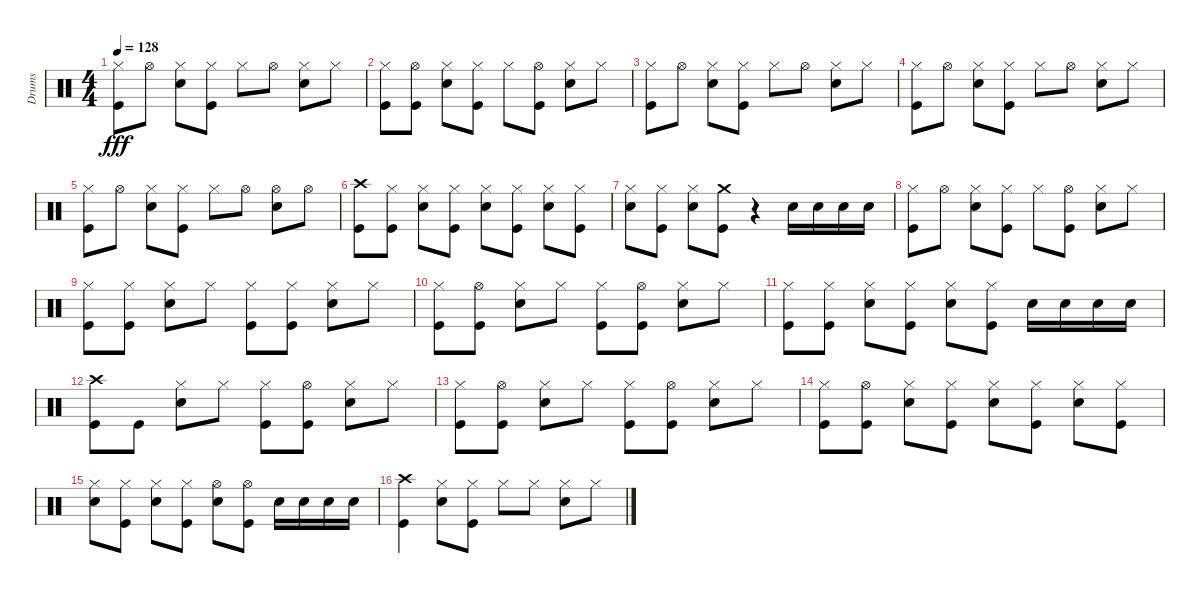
\track ("Drums" "Drums") {instrument percussion}
\staff {score}
\articulation defaults
\ts (4 4)
\tempo 128
\clef neutral
\ks c
("Hi-Hat (closed)" "Kick (hit)").8{dy fff} "Hi-Hat (open)".8 ("Hi-Hat (closed)" "Snare (hit) 2").8 ("Hi-Hat (closed)" "Kick (hit)").8 "Hi-Hat (closed)".8 "Hi-Hat (open)".8 ("Hi-Hat (closed)" "Snare (hit) 2").8 "Hi-Hat (closed)".8 |
("Hi-Hat (closed)" "Kick (hit)").8 ("Hi-Hat (open)" "Kick (hit)").8 ("Hi-Hat (closed)" "Snare (hit) 2").8 ("Hi-Hat (closed)" "Kick (hit)").8 "Hi-Hat (closed)".8 ("Hi-Hat (open)" "Kick (hit)").8 ("Hi-Hat (closed)" "Snare (hit) 2").8 "Hi-Hat (closed)".8 |
("Hi-Hat (closed)" "Kick (hit)").8 "Hi-Hat (open)".8 ("Hi-Hat (closed)" "Snare (hit) 2").8 ("Hi-Hat (closed)" "Kick (hit)").8 "Hi-Hat (closed)".8 "Hi-Hat (open)".8 ("Hi-Hat (closed)" "Snare (hit) 2").8 "Hi-Hat (closed)".8 |
("Hi-Hat (closed)" "Kick (hit)").8 "Hi-Hat (open)".8 ("Hi-Hat (closed)" "Snare (hit) 2").8 ("Hi-Hat (closed)" "Kick (hit)").8 "Hi-Hat (closed)".8 "Hi-Hat (open)".8 ("Hi-Hat (closed)" "Snare (hit) 2").8 "Hi-Hat (closed)".8 |
("Hi-Hat (closed)" "Kick (hit)").8 "Hi-Hat (open)".8 ("Hi-Hat (closed)" "Snare (hit) 2").8 ("Hi-Hat (closed)" "Kick (hit)").8 "Hi-Hat (closed)".8 "Hi-Hat (open)".8 ("Hi-Hat (open)" "Snare (hit) 2").8 "Hi-Hat (open)".8 |
("Crash high (hit)" "Kick (hit)").8 ("Hi-Hat (closed)" "Kick (hit)").8 ("Hi-Hat (closed)" "Snare (hit) 2").8 ("Hi-Hat (closed)" "Kick (hit)").8 ("Hi-Hat (closed)" "Snare (hit) 2").8 ("Hi-Hat (closed)" "Kick (hit)").8 ("Hi-Hat (closed)" "Snare (hit) 2").8 ("Hi-Hat (closed)" "Kick (hit)").8 |
("Hi-Hat (closed)" "Snare (hit) 2").8 ("Hi-Hat (closed)" "Kick (hit)").8 ("Hi-Hat (closed)" "Snare (hit) 2").8 ("Crash medium (hit)" "Kick (hit)").8 r.4 "Snare (hit) 2".16 "Snare (hit) 2".16 "Snare (hit) 2".16 "Snare (hit) 2".16 |
("Hi-Hat (closed)" "Kick (hit)").8 "Hi-Hat (open)".8 ("Hi-Hat (closed)" "Snare (hit) 2").8 ("Hi-Hat (closed)" "Kick (hit)").8 "Hi-Hat (closed)".8 ("Hi-Hat (open)" "Kick (hit)").8 ("Hi-Hat (closed)" "Snare (hit) 2").8 "Hi-Hat (closed)".8 |
("Hi-Hat (closed)" "Kick (hit)").8 ("Hi-Hat (closed)" "Kick (hit)").8 ("Hi-Hat (closed)" "Snare (hit) 2").8 "Hi-Hat (closed)".8 ("Hi-Hat (closed)" "Kick (hit)").8 ("Hi-Hat (closed)" "Kick (hit)").8 ("Hi-Hat (closed)" "Snare (hit) 2").8 "Hi-Hat (closed)".8 |
("Hi-Hat (closed)" "Kick (hit)").8 ("Hi-Hat (open)" "Kick (hit)").8 ("Hi-Hat (closed)" "Snare (hit) 2").8 "Hi-Hat (closed)".8 ("Hi-Hat (closed)" "Kick (hit)").8 ("Hi-Hat (open)" "Kick (hit)").8 ("Hi-Hat (closed)" "Snare (hit) 2").8 "Hi-Hat (closed)".8 |
("Hi-Hat (closed)" "Kick (hit)").8 ("Hi-Hat (closed)" "Kick (hit)").8 ("Hi-Hat (closed)" "Snare (hit) 2").8 ("Hi-Hat (closed)" "Kick (hit)").8 ("Hi-Hat (closed)" "Snare (hit) 2").8 ("Hi-Hat (closed)" "Kick (hit)").8 "Snare (hit) 2".16 "Snare (hit) 2".16 "Snare (hit) 2".16 "Snare (hit) 2".16 |
("Crash high (hit)" "Kick (hit)").8 "Kick (hit)".8 ("Hi-Hat (closed)" "Snare (hit) 2").8 "Hi-Hat (closed)".8 ("Hi-Hat (closed)" "Kick (hit)").8 ("Hi-Hat (open)" "Kick (hit)").8 ("Hi-Hat (closed)" "Snare (hit) 2").8 "Hi-Hat (closed)".8 |
("Hi-Hat (closed)" "Kick (hit)").8 ("Hi-Hat (open)" "Kick (hit)").8 ("Hi-Hat (closed)" "Snare (hit) 2").8 "Hi-Hat (closed)".8 ("Hi-Hat (closed)" "Kick (hit)").8 ("Hi-Hat (open)" "Kick (hit)").8 ("Hi-Hat (closed)" "Snare (hit) 2").8 "Hi-Hat (closed)".8 |
("Hi-Hat (closed)" "Kick (hit)").8 ("Hi-Hat (open)" "Kick (hit)").8 ("Hi-Hat (closed)" "Snare (hit) 2").8 ("Hi-Hat (closed)" "Kick (hit)").8 ("Hi-Hat (closed)" "Snare (hit) 2").8 ("Hi-Hat (closed)" "Kick (hit)").8 ("Hi-Hat (closed)" "Snare (hit) 2").8 ("Hi-Hat (closed)" "Kick (hit)").8 |
("Hi-Hat (closed)" "Snare (hit) 2").8 ("Hi-Hat (closed)" "Kick (hit)").8 ("Hi-Hat (closed)" "Snare (hit) 2").8 ("Hi-Hat (closed)" "Kick (hit)").8 ("Hi-Hat (open)" "Snare (hit) 2").8 ("Hi-Hat (open)" "Kick (hit)").8 "Snare (hit) 2".16 "Snare (hit) 2".16 "Snare (hit) 2".16 "Snare (hit) 2".16 |
("Crash high (hit)" "Kick (hit)").4 ("Hi-Hat (closed)" "Snare (hit) 2").8 ("Hi-Hat (closed)" "Kick (hit)").8 "Hi-Hat (closed)".8 "Hi-Hat (closed)".8 ("Hi-Hat (closed)" "Snare (hit) 2").8 "Hi-Hat (closed)".8
